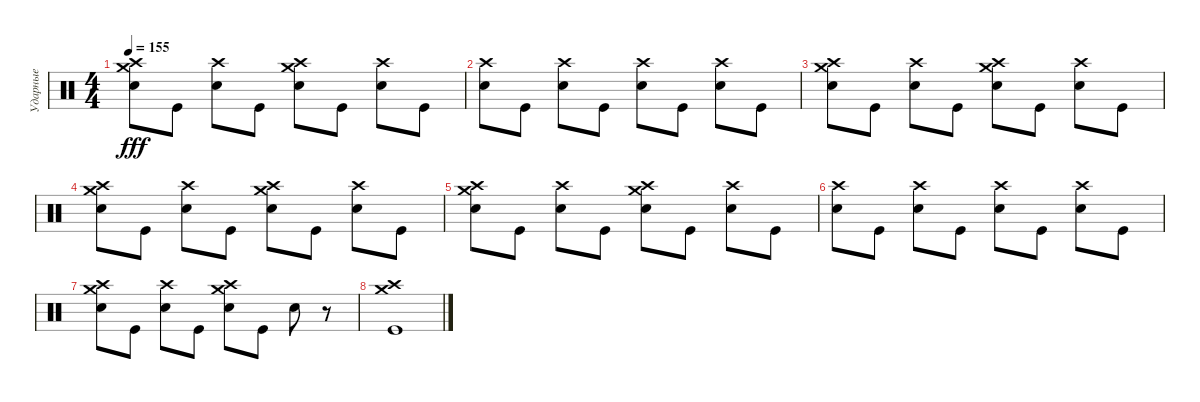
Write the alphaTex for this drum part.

\track ("Ударные" "Ударные") {instrument percussion}
\staff {score}
\articulation defaults
\ts (4 4)
\tempo 155
\clef neutral
\ks c
("Electric Snare (hit)" "Crash high (hit)" "Crash medium (hit)").8{dy fff} "Kick (hit)".8 ("Electric Snare (hit)" "Crash high (hit)").8 "Kick (hit)".8 ("Electric Snare (hit)" "Crash high (hit)" "Crash medium (hit)").8 "Kick (hit)".8 ("Electric Snare (hit)" "Crash high (hit)").8 "Kick (hit)".8 |
("Electric Snare (hit)" "Crash high (hit)").8 "Kick (hit)".8 ("Electric Snare (hit)" "Crash high (hit)").8 "Kick (hit)".8 ("Electric Snare (hit)" "Crash high (hit)").8 "Kick (hit)".8 ("Electric Snare (hit)" "Crash high (hit)").8 "Kick (hit)".8 |
("Electric Snare (hit)" "Crash high (hit)" "Crash medium (hit)").8 "Kick (hit)".8 ("Electric Snare (hit)" "Crash high (hit)").8 "Kick (hit)".8 ("Electric Snare (hit)" "Crash high (hit)" "Crash medium (hit)").8 "Kick (hit)".8 ("Electric Snare (hit)" "Crash high (hit)").8 "Kick (hit)".8 |
("Electric Snare (hit)" "Crash high (hit)" "Crash medium (hit)").8 "Kick (hit)".8 ("Electric Snare (hit)" "Crash high (hit)").8 "Kick (hit)".8 ("Electric Snare (hit)" "Crash high (hit)" "Crash medium (hit)").8 "Kick (hit)".8 ("Electric Snare (hit)" "Crash high (hit)").8 "Kick (hit)".8 |
("Electric Snare (hit)" "Crash high (hit)" "Crash medium (hit)").8 "Kick (hit)".8 ("Electric Snare (hit)" "Crash high (hit)").8 "Kick (hit)".8 ("Electric Snare (hit)" "Crash high (hit)" "Crash medium (hit)").8 "Kick (hit)".8 ("Electric Snare (hit)" "Crash high (hit)").8 "Kick (hit)".8 |
("Electric Snare (hit)" "Crash high (hit)").8 "Kick (hit)".8 ("Electric Snare (hit)" "Crash high (hit)").8 "Kick (hit)".8 ("Electric Snare (hit)" "Crash high (hit)").8 "Kick (hit)".8 ("Electric Snare (hit)" "Crash high (hit)").8 "Kick (hit)".8 |
("Electric Snare (hit)" "Crash high (hit)" "Crash medium (hit)").8 "Kick (hit)".8 ("Electric Snare (hit)" "Crash high (hit)").8 "Kick (hit)".8 ("Electric Snare (hit)" "Crash high (hit)" "Crash medium (hit)").8 "Kick (hit)".8 "Electric Snare (hit)".8 r.8 |
("Crash medium (hit)" "Kick (hit)" "Crash high (hit)").1
